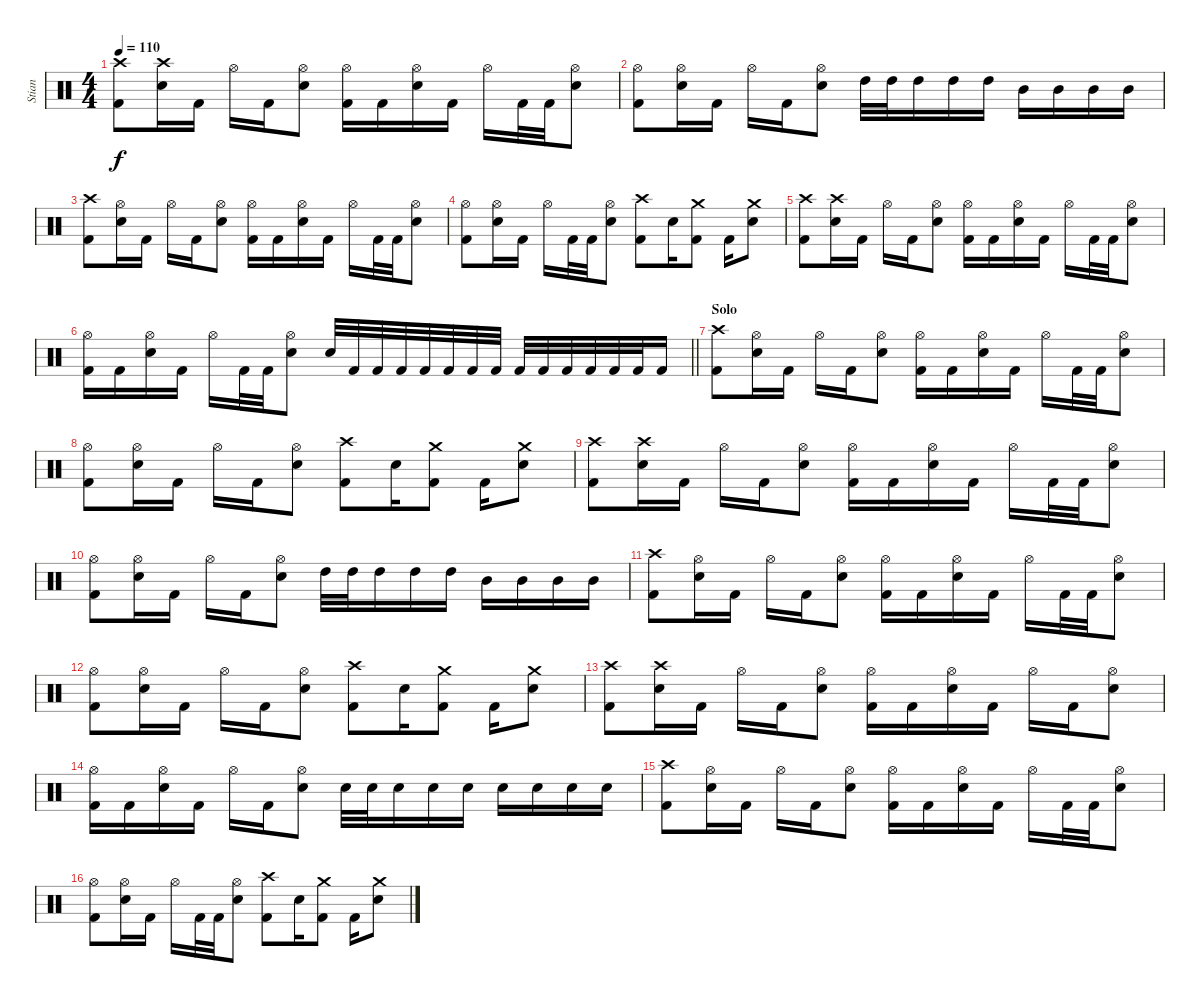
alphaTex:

\track ("Stian" "Stian") {instrument percussion}
\staff {score}
\articulation defaults
\ts (4 4)
\tempo 110
\clef neutral
\ks c
("Crash high (hit)" "Kick (hit) 2").8{dy f} ("Crash high (hit)" "Electric Snare (hit)").16 "Kick (hit) 2".16 "Hi-Hat (open)".16 "Kick (hit) 2".16 ("Hi-Hat (open)" "Electric Snare (hit)").8 ("Hi-Hat (open)" "Kick (hit) 2").16 "Kick (hit) 2".16 ("Hi-Hat (open)" "Electric Snare (hit)").16 "Kick (hit) 2".16 "Hi-Hat (open)".16 "Kick (hit) 2".32 "Kick (hit) 2".32 ("Hi-Hat (open)" "Electric Snare (hit)").8 |
("Hi-Hat (open)" "Kick (hit) 2").8 ("Hi-Hat (open)" "Electric Snare (hit)").16 "Kick (hit) 2".16 "Hi-Hat (open)".16 "Kick (hit) 2".16 ("Hi-Hat (open)" "Electric Snare (hit)").8 "High Tom (hit)".32 "High Tom (hit)".32 "High Tom (hit)".16 "High Tom (hit)".16 "High Tom (hit)".16 "Mid Tom (hit)".16 "Mid Tom (hit)".16 "Mid Tom (hit)".16 "Mid Tom (hit)".16 |
("Crash high (hit)" "Kick (hit) 2").8 ("Hi-Hat (open)" "Electric Snare (hit)").16 "Kick (hit) 2".16 "Hi-Hat (open)".16 "Kick (hit) 2".16 ("Hi-Hat (open)" "Electric Snare (hit)").8 ("Hi-Hat (open)" "Kick (hit) 2").16 "Kick (hit) 2".16 ("Hi-Hat (open)" "Electric Snare (hit)").16 "Kick (hit) 2".16 "Hi-Hat (open)".16 "Kick (hit) 2".32 "Kick (hit) 2".32 ("Hi-Hat (open)" "Electric Snare (hit)").8 |
("Hi-Hat (open)" "Kick (hit) 2").8 ("Hi-Hat (open)" "Electric Snare (hit)").16 "Kick (hit) 2".16 "Hi-Hat (open)".16 "Kick (hit) 2".32 "Kick (hit) 2".32 ("Hi-Hat (open)" "Electric Snare (hit)").8 ("Crash high (hit)" "Kick (hit) 2").8 "Electric Snare (hit)".16 ("Crash medium (hit)" "Kick (hit) 2").8 "Kick (hit) 2".16 ("Crash medium (hit)" "Electric Snare (hit)").8 |
("Crash high (hit)" "Kick (hit) 2").8 ("Crash high (hit)" "Electric Snare (hit)").16 "Kick (hit) 2".16 "Hi-Hat (open)".16 "Kick (hit) 2".16 ("Hi-Hat (open)" "Electric Snare (hit)").8 ("Hi-Hat (open)" "Kick (hit) 2").16 "Kick (hit) 2".16 ("Hi-Hat (open)" "Electric Snare (hit)").16 "Kick (hit) 2".16 "Hi-Hat (open)".16 "Kick (hit) 2".32 "Kick (hit) 2".32 ("Hi-Hat (open)" "Electric Snare (hit)").8 |
\barLineRight lightlight
("Hi-Hat (open)" "Kick (hit) 2").16 "Kick (hit) 2".16 ("Hi-Hat (open)" "Electric Snare (hit)").16 "Kick (hit) 2".16 "Hi-Hat (open)".16 "Kick (hit) 2".32 "Kick (hit) 2".32 ("Hi-Hat (open)" "Electric Snare (hit)").8 "Electric Snare (hit)".32 "Kick (hit) 2".32 "Kick (hit) 2".32 "Kick (hit) 2".32 "Kick (hit) 2".32 "Kick (hit) 2".32 "Kick (hit) 2".32 "Kick (hit) 2".32 "Kick (hit) 2".32 "Kick (hit) 2".32 "Kick (hit) 2".32 "Kick (hit) 2".32 "Kick (hit) 2".32 "Kick (hit) 2".32 "Kick (hit) 2".16 |
\section ("" "Solo")
("Crash high (hit)" "Kick (hit) 2").8 ("Hi-Hat (open)" "Electric Snare (hit)").16 "Kick (hit) 2".16 "Hi-Hat (open)".16 "Kick (hit) 2".16 ("Hi-Hat (open)" "Electric Snare (hit)").8 ("Hi-Hat (open)" "Kick (hit) 2").16 "Kick (hit) 2".16 ("Hi-Hat (open)" "Electric Snare (hit)").16 "Kick (hit) 2".16 "Hi-Hat (open)".16 "Kick (hit) 2".32 "Kick (hit) 2".32 ("Hi-Hat (open)" "Electric Snare (hit)").8 |
("Hi-Hat (open)" "Kick (hit) 2").8 ("Hi-Hat (open)" "Electric Snare (hit)").16 "Kick (hit) 2".16 "Hi-Hat (open)".16 "Kick (hit) 2".16 ("Hi-Hat (open)" "Electric Snare (hit)").8 ("Crash high (hit)" "Kick (hit) 2").8 "Electric Snare (hit)".16 ("Crash medium (hit)" "Kick (hit) 2").8 "Kick (hit) 2".16 ("Crash medium (hit)" "Electric Snare (hit)").8 |
("Crash high (hit)" "Kick (hit) 2").8 ("Crash high (hit)" "Electric Snare (hit)").16 "Kick (hit) 2".16 "Hi-Hat (open)".16 "Kick (hit) 2".16 ("Hi-Hat (open)" "Electric Snare (hit)").8 ("Hi-Hat (open)" "Kick (hit) 2").16 "Kick (hit) 2".16 ("Hi-Hat (open)" "Electric Snare (hit)").16 "Kick (hit) 2".16 "Hi-Hat (open)".16 "Kick (hit) 2".32 "Kick (hit) 2".32 ("Hi-Hat (open)" "Electric Snare (hit)").8 |
("Hi-Hat (open)" "Kick (hit) 2").8 ("Hi-Hat (open)" "Electric Snare (hit)").16 "Kick (hit) 2".16 "Hi-Hat (open)".16 "Kick (hit) 2".16 ("Hi-Hat (open)" "Electric Snare (hit)").8 "High Tom (hit)".32 "High Tom (hit)".32 "High Tom (hit)".16 "High Tom (hit)".16 "High Tom (hit)".16 "Mid Tom (hit)".16 "Mid Tom (hit)".16 "Mid Tom (hit)".16 "Mid Tom (hit)".16 |
("Crash high (hit)" "Kick (hit) 2").8 ("Hi-Hat (open)" "Electric Snare (hit)").16 "Kick (hit) 2".16 "Hi-Hat (open)".16 "Kick (hit) 2".16 ("Hi-Hat (open)" "Electric Snare (hit)").8 ("Hi-Hat (open)" "Kick (hit) 2").16 "Kick (hit) 2".16 ("Hi-Hat (open)" "Electric Snare (hit)").16 "Kick (hit) 2".16 "Hi-Hat (open)".16 "Kick (hit) 2".32 "Kick (hit) 2".32 ("Hi-Hat (open)" "Electric Snare (hit)").8 |
("Hi-Hat (open)" "Kick (hit) 2").8 ("Hi-Hat (open)" "Electric Snare (hit)").16 "Kick (hit) 2".16 "Hi-Hat (open)".16 "Kick (hit) 2".16 ("Hi-Hat (open)" "Electric Snare (hit)").8 ("Crash high (hit)" "Kick (hit) 2").8 "Electric Snare (hit)".16 ("Crash medium (hit)" "Kick (hit) 2").8 "Kick (hit) 2".16 ("Crash medium (hit)" "Electric Snare (hit)").8 |
("Crash high (hit)" "Kick (hit) 2").8 ("Crash high (hit)" "Electric Snare (hit)").16 "Kick (hit) 2".16 "Hi-Hat (open)".16 "Kick (hit) 2".16 ("Hi-Hat (open)" "Electric Snare (hit)").8 ("Hi-Hat (open)" "Kick (hit) 2").16 "Kick (hit) 2".16 ("Hi-Hat (open)" "Electric Snare (hit)").16 "Kick (hit) 2".16 "Hi-Hat (open)".16 "Kick (hit) 2".16 ("Hi-Hat (open)" "Electric Snare (hit)").8 |
("Hi-Hat (open)" "Kick (hit) 2").16 "Kick (hit) 2".16 ("Hi-Hat (open)" "Electric Snare (hit)").16 "Kick (hit) 2".16 "Hi-Hat (open)".16 "Kick (hit) 2".16 ("Hi-Hat (open)" "Electric Snare (hit)").8 "Electric Snare (hit)".32 "Electric Snare (hit)".32 "Electric Snare (hit)".16 "Electric Snare (hit)".16 "Electric Snare (hit)".16 "Electric Snare (hit)".16 "Electric Snare (hit)".16 "Electric Snare (hit)".16 "Electric Snare (hit)".16 |
("Crash high (hit)" "Kick (hit) 2").8 ("Hi-Hat (open)" "Electric Snare (hit)").16 "Kick (hit) 2".16 "Hi-Hat (open)".16 "Kick (hit) 2".16 ("Hi-Hat (open)" "Electric Snare (hit)").8 ("Hi-Hat (open)" "Kick (hit) 2").16 "Kick (hit) 2".16 ("Hi-Hat (open)" "Electric Snare (hit)").16 "Kick (hit) 2".16 "Hi-Hat (open)".16 "Kick (hit) 2".32 "Kick (hit) 2".32 ("Hi-Hat (open)" "Electric Snare (hit)").8 |
("Hi-Hat (open)" "Kick (hit) 2").8 ("Hi-Hat (open)" "Electric Snare (hit)").16 "Kick (hit) 2".16 "Hi-Hat (open)".16 "Kick (hit) 2".32 "Kick (hit) 2".32 ("Hi-Hat (open)" "Electric Snare (hit)").8 ("Crash high (hit)" "Kick (hit) 2").8 "Electric Snare (hit)".16 ("Crash medium (hit)" "Kick (hit) 2").8 "Kick (hit) 2".16 ("Crash medium (hit)" "Electric Snare (hit)").8
